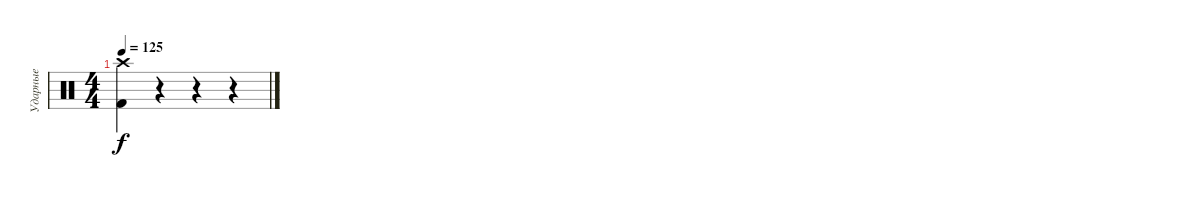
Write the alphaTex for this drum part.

\track ("Ударные" "Ударные") {instrument percussion}
\staff {score}
\articulation defaults
\ts (4 4)
\tempo 125
\clef neutral
\ks c
("Crash high (hit)" "Kick (hit) 2").4{dy f} r.4 r.4 r.4
